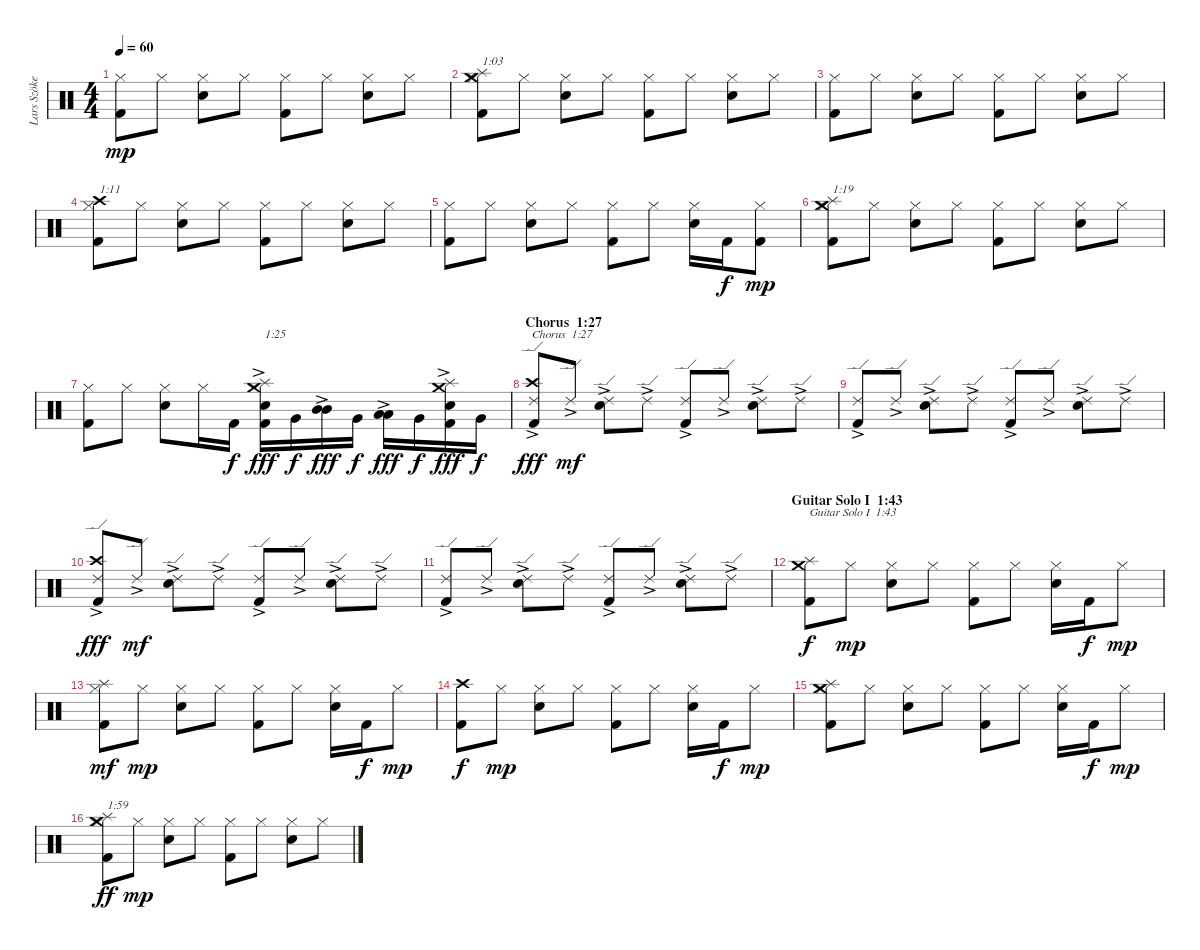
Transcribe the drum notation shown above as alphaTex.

\track ("Lars Szöke (Drums)" "Lars Szöke") {instrument percussion}
\staff {score}
\articulation defaults
\ts (4 4)
\tempo 60
\clef neutral
\ks c
("Kick (hit) 2" "Hi-Hat (closed)").8{dy mp} "Hi-Hat (closed)".8 ("Snare (hit) 2" "Hi-Hat (closed)").8 "Hi-Hat (closed)".8 ("Kick (hit) 2" "Hi-Hat (closed)").8 "Hi-Hat (closed)".8 ("Snare (hit) 2" "Hi-Hat (closed)").8 "Hi-Hat (closed)".8 |
("Kick (hit) 2" "Hi-Hat (closed)" "Splash (hit)" "Crash medium (hit)").8{txt "1:03"} "Hi-Hat (closed)".8 ("Snare (hit) 2" "Hi-Hat (closed)").8 "Hi-Hat (closed)".8 ("Kick (hit) 2" "Hi-Hat (closed)").8 "Hi-Hat (closed)".8 ("Snare (hit) 2" "Hi-Hat (closed)").8 "Hi-Hat (closed)".8 |
("Kick (hit) 2" "Hi-Hat (closed)").8 "Hi-Hat (closed)".8 ("Snare (hit) 2" "Hi-Hat (closed)").8 "Hi-Hat (closed)".8 ("Kick (hit) 2" "Hi-Hat (closed)").8 "Hi-Hat (closed)".8 ("Snare (hit) 2" "Hi-Hat (closed)").8 "Hi-Hat (closed)".8 |
("Kick (hit) 2" "Hi-Hat (closed)" "Crash high (hit)").8{txt "1:11"} "Hi-Hat (closed)".8 ("Snare (hit) 2" "Hi-Hat (closed)").8 "Hi-Hat (closed)".8 ("Kick (hit) 2" "Hi-Hat (closed)").8 "Hi-Hat (closed)".8 ("Snare (hit) 2" "Hi-Hat (closed)").8 "Hi-Hat (closed)".8 |
("Kick (hit) 2" "Hi-Hat (closed)").8 "Hi-Hat (closed)".8 ("Snare (hit) 2" "Hi-Hat (closed)").8 "Hi-Hat (closed)".8 ("Kick (hit) 2" "Hi-Hat (closed)").8 "Hi-Hat (closed)".8 ("Snare (hit) 2" "Hi-Hat (closed)").16 "Kick (hit) 2".16{dy f} ("Kick (hit) 2" "Hi-Hat (closed)").8{dy mp} |
("Kick (hit) 2" "Hi-Hat (closed)" "Splash (hit)" "Crash medium (hit)").8{txt "1:19"} "Hi-Hat (closed)".8 ("Snare (hit) 2" "Hi-Hat (closed)").8 "Hi-Hat (closed)".8 ("Kick (hit) 2" "Hi-Hat (closed)").8 "Hi-Hat (closed)".8 ("Snare (hit) 2" "Hi-Hat (closed)").8 "Hi-Hat (closed)".8 |
("Kick (hit) 2" "Hi-Hat (closed)").8 "Hi-Hat (closed)".8 ("Snare (hit) 2" "Hi-Hat (closed)").8 "Hi-Hat (closed)".16 "Kick (hit) 2".16{dy f} ("Kick (hit) 2" "Snare (hit) 2"{ac} "Splash (hit)"{ac} "Crash medium (hit)"{ac}).16{txt "1:25" dy fff} "Very Low Tom (hit)".16{dy f} ("Mid Tom (hit)"{ac} "Mid Tom (hit)"{ac}).16{dy fff} "Very Low Tom (hit)".16{dy f} ("Low Tom (hit)"{ac} "Low Tom (hit)"{ac}).16{dy fff} "Very Low Tom (hit)".16{dy f} ("Kick (hit) 2" "Snare (hit) 2"{ac} "Splash (hit)"{ac} "Crash medium (hit)"{ac}).16{dy fff} "Very Low Tom (hit)".16{dy f} |
\section ("" "Chorus  1:27")
("Kick (hit) 2" "Ride (edge) 2"{ac} "Crash high (hit)"{ac}).8{txt "Chorus  1:27" dy fff} "Ride (edge) 2"{ac}.8{dy mf} ("Snare (hit) 2" "Ride (edge) 2"{ac}).8 "Ride (edge) 2"{ac}.8 ("Kick (hit) 2" "Ride (edge) 2"{ac}).8 "Ride (edge) 2"{ac}.8 ("Snare (hit) 2" "Ride (edge) 2"{ac}).8 "Ride (edge) 2"{ac}.8 |
("Kick (hit) 2" "Ride (edge) 2"{ac}).8 "Ride (edge) 2"{ac}.8 ("Snare (hit) 2" "Ride (edge) 2"{ac}).8 "Ride (edge) 2"{ac}.8 ("Kick (hit) 2" "Ride (edge) 2"{ac}).8 "Ride (edge) 2"{ac}.8 ("Snare (hit) 2" "Ride (edge) 2"{ac}).8 "Ride (edge) 2"{ac}.8 |
("Kick (hit) 2" "Ride (edge) 2"{ac} "Crash high (hit)"{ac}).8{dy fff} "Ride (edge) 2"{ac}.8{dy mf} ("Snare (hit) 2" "Ride (edge) 2"{ac}).8 "Ride (edge) 2"{ac}.8 ("Kick (hit) 2" "Ride (edge) 2"{ac}).8 "Ride (edge) 2"{ac}.8 ("Snare (hit) 2" "Ride (edge) 2"{ac}).8 "Ride (edge) 2"{ac}.8 |
("Kick (hit) 2" "Ride (edge) 2"{ac}).8 "Ride (edge) 2"{ac}.8 ("Snare (hit) 2" "Ride (edge) 2"{ac}).8 "Ride (edge) 2"{ac}.8 ("Kick (hit) 2" "Ride (edge) 2"{ac}).8 "Ride (edge) 2"{ac}.8 ("Snare (hit) 2" "Ride (edge) 2"{ac}).8 "Ride (edge) 2"{ac}.8 |
\section ("" "Guitar Solo I  1:43")
("Kick (hit) 2" "Splash (hit)" "Crash medium (hit)").8{txt "Guitar Solo I  1:43" dy f} "Hi-Hat (closed)".8{dy mp} ("Snare (hit) 2" "Hi-Hat (closed)").8 "Hi-Hat (closed)".8 ("Kick (hit) 2" "Hi-Hat (closed)").8 "Hi-Hat (closed)".8 ("Snare (hit) 2" "Hi-Hat (closed)").16 "Kick (hit) 2".16{dy f} "Hi-Hat (closed)".8{dy mp} |
("Kick (hit) 2" "Hi-Hat (closed)" "Splash (hit)").8{dy mf} "Hi-Hat (closed)".8{dy mp} ("Snare (hit) 2" "Hi-Hat (closed)").8 "Hi-Hat (closed)".8 ("Kick (hit) 2" "Hi-Hat (closed)").8 "Hi-Hat (closed)".8 ("Snare (hit) 2" "Hi-Hat (closed)").16 "Kick (hit) 2".16{dy f} "Hi-Hat (closed)".8{dy mp} |
("Kick (hit) 2" "Crash high (hit)").8{dy f} "Hi-Hat (closed)".8{dy mp} ("Snare (hit) 2" "Hi-Hat (closed)").8 "Hi-Hat (closed)".8 ("Kick (hit) 2" "Hi-Hat (closed)").8 "Hi-Hat (closed)".8 ("Snare (hit) 2" "Hi-Hat (closed)").16 "Kick (hit) 2".16{dy f} "Hi-Hat (closed)".8{dy mp} |
("Kick (hit) 2" "Hi-Hat (closed)" "Splash (hit)" "Crash medium (hit)").8 "Hi-Hat (closed)".8 ("Snare (hit) 2" "Hi-Hat (closed)").8 "Hi-Hat (closed)".8 ("Kick (hit) 2" "Hi-Hat (closed)").8 "Hi-Hat (closed)".8 ("Snare (hit) 2" "Hi-Hat (closed)").16 "Kick (hit) 2".16{dy f} "Hi-Hat (closed)".8{dy mp} |
("Kick (hit) 2" "Hi-Hat (closed)" "Splash (hit)" "Crash medium (hit)").8{txt "1:59" dy ff} "Hi-Hat (closed)".8{dy mp} ("Snare (hit) 2" "Hi-Hat (closed)").8 "Hi-Hat (closed)".8 ("Kick (hit) 2" "Hi-Hat (closed)").8 "Hi-Hat (closed)".8 ("Snare (hit) 2" "Hi-Hat (closed)").8 "Hi-Hat (closed)".8
